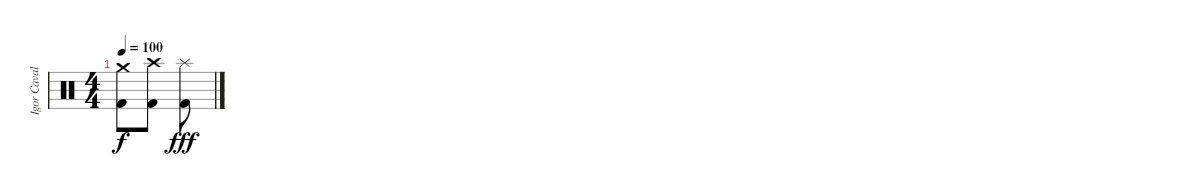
\track ("Igor Cavalera" "Igor Caval") {instrument percussion}
\staff {score}
\articulation defaults
\ts (4 4)
\tempo 100
\clef neutral
\ks c
("Crash medium (hit)" "Kick (hit) 2").8{dy f} ("Crash high (hit)" "Kick (hit) 2").8 ("Splash (hit)" "Kick (hit) 2").8{dy fff}
